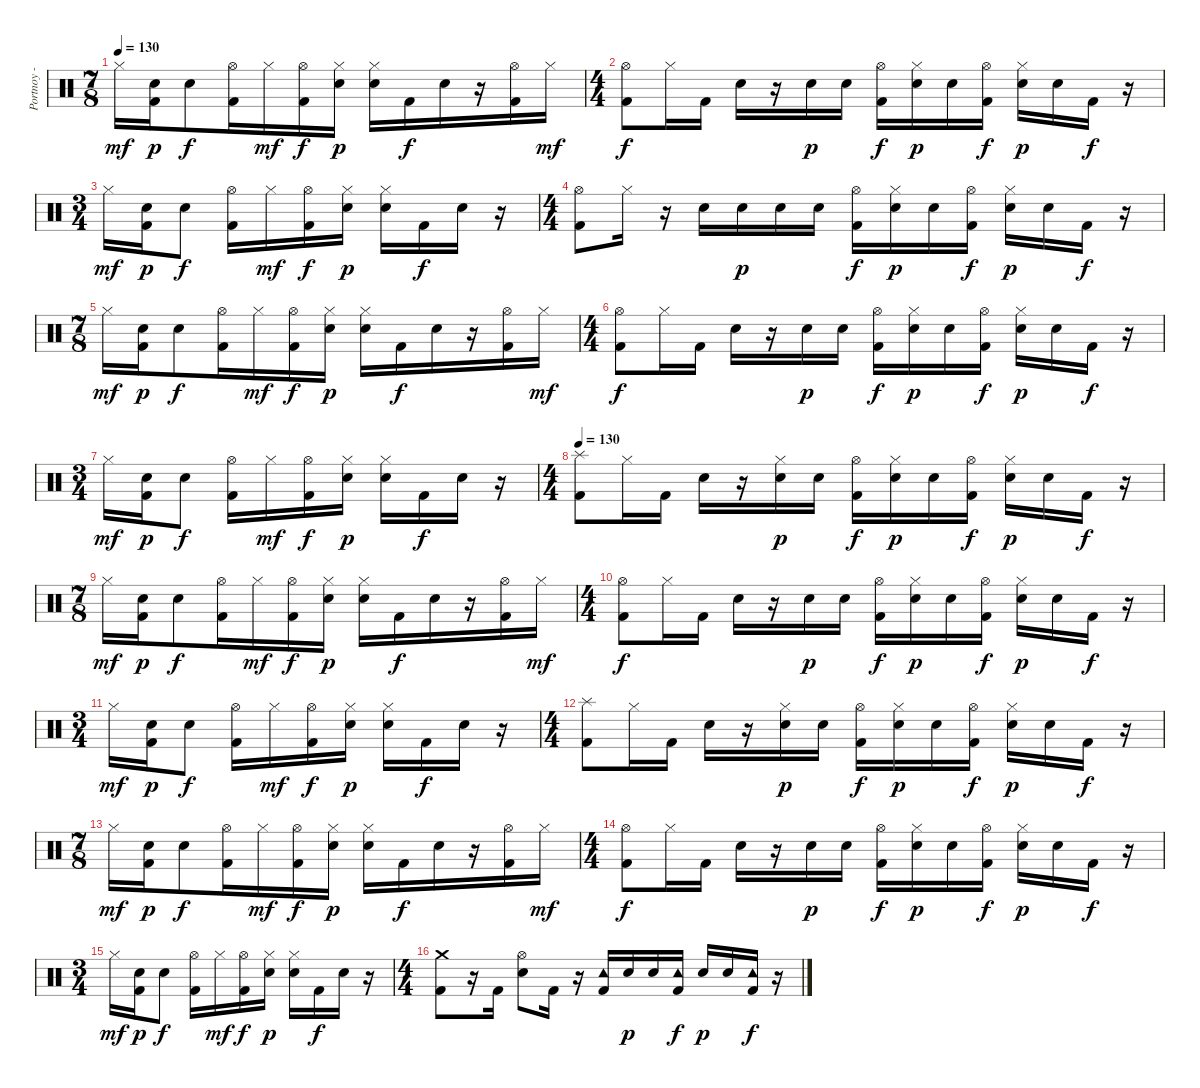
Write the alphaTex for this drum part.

\track ("Portnoy - Drums" "Portnoy - ") {instrument percussion}
\staff {score}
\articulation defaults
\ts (7 8)
\tempo 130
\clef neutral
\ks c "Hi-Hat (closed)".16{dy mf}
("Kick (hit) 2" "Electric Snare (hit)").16{dy p} "Electric Snare (hit)".8{dy f} ("Kick (hit) 2" "Hi-Hat (open)").16 "Hi-Hat (closed)".16{dy mf} ("Kick (hit) 2" "Hi-Hat (open)").16{dy f} ("Hi-Hat (closed)" "Electric Snare (hit)").16{dy p} ("Hi-Hat (closed)" "Electric Snare (hit)").16 "Kick (hit) 2".16{dy f} "Electric Snare (hit)".16 r.16 ("Kick (hit) 2" "Hi-Hat (open)").16 "Hi-Hat (closed)".16{dy mf} |
\ts (4 4)
("Hi-Hat (open)" "Kick (hit) 2").8{dy f} "Hi-Hat (closed)".16 "Kick (hit) 2".16 "Electric Snare (hit)".16 r.16 "Electric Snare (hit)".16{dy p} "Electric Snare (hit)".16 ("Kick (hit) 2" "Hi-Hat (open)").16{dy f} ("Hi-Hat (closed)" "Electric Snare (hit)").16{dy p} "Electric Snare (hit)".16 ("Kick (hit) 2" "Hi-Hat (open)").16{dy f} ("Hi-Hat (closed)" "Electric Snare (hit)").16{dy p} "Electric Snare (hit)".16 "Kick (hit) 2".16{dy f} r.16 |
\ts (3 4)
"Hi-Hat (closed)".16{dy mf} ("Kick (hit) 2" "Electric Snare (hit)").16{dy p} "Electric Snare (hit)".8{dy f} ("Kick (hit) 2" "Hi-Hat (open)").16 "Hi-Hat (closed)".16{dy mf} ("Kick (hit) 2" "Hi-Hat (open)").16{dy f} ("Hi-Hat (closed)" "Electric Snare (hit)").16{dy p} ("Hi-Hat (closed)" "Electric Snare (hit)").16 "Kick (hit) 2".16{dy f} "Electric Snare (hit)".16 r.16 |
\ts (4 4)
("Hi-Hat (open)" "Kick (hit) 2").8 "Hi-Hat (closed)".16 r.16 "Electric Snare (hit)".16 "Electric Snare (hit)".16{dy p} "Electric Snare (hit)".16 "Electric Snare (hit)".16 ("Kick (hit) 2" "Hi-Hat (open)").16{dy f} ("Hi-Hat (closed)" "Electric Snare (hit)").16{dy p} "Electric Snare (hit)".16 ("Kick (hit) 2" "Hi-Hat (open)").16{dy f} ("Hi-Hat (closed)" "Electric Snare (hit)").16{dy p} "Electric Snare (hit)".16 "Kick (hit) 2".16{dy f} r.16 |
\ts (7 8)
"Hi-Hat (closed)".16{dy mf} ("Kick (hit) 2" "Electric Snare (hit)").16{dy p} "Electric Snare (hit)".8{dy f} ("Kick (hit) 2" "Hi-Hat (open)").16 "Hi-Hat (closed)".16{dy mf} ("Kick (hit) 2" "Hi-Hat (open)").16{dy f} ("Hi-Hat (closed)" "Electric Snare (hit)").16{dy p} ("Hi-Hat (closed)" "Electric Snare (hit)").16 "Kick (hit) 2".16{dy f} "Electric Snare (hit)".16 r.16 ("Kick (hit) 2" "Hi-Hat (open)").16 "Hi-Hat (closed)".16{dy mf} |
\ts (4 4)
("Hi-Hat (open)" "Kick (hit) 2").8{dy f} "Hi-Hat (closed)".16 "Kick (hit) 2".16 "Electric Snare (hit)".16 r.16 "Electric Snare (hit)".16{dy p} "Electric Snare (hit)".16 ("Kick (hit) 2" "Hi-Hat (open)").16{dy f} ("Hi-Hat (closed)" "Electric Snare (hit)").16{dy p} "Electric Snare (hit)".16 ("Kick (hit) 2" "Hi-Hat (open)").16{dy f} ("Hi-Hat (closed)" "Electric Snare (hit)").16{dy p} "Electric Snare (hit)".16 "Kick (hit) 2".16{dy f} r.16 |
\ts (3 4)
"Hi-Hat (closed)".16{dy mf} ("Kick (hit) 2" "Electric Snare (hit)").16{dy p} "Electric Snare (hit)".8{dy f} ("Kick (hit) 2" "Hi-Hat (open)").16 "Hi-Hat (closed)".16{dy mf} ("Kick (hit) 2" "Hi-Hat (open)").16{dy f} ("Hi-Hat (closed)" "Electric Snare (hit)").16{dy p} ("Hi-Hat (closed)" "Electric Snare (hit)").16 "Kick (hit) 2".16{dy f} "Electric Snare (hit)".16 r.16 |
\ts (4 4)
\tempo 130
("Kick (hit) 2" "Splash (hit)").8 "Hi-Hat (closed)".16 "Kick (hit) 2".16 "Electric Snare (hit)".16 r.16 ("Electric Snare (hit)" "Hi-Hat (closed)").16{dy p} "Electric Snare (hit)".16 ("Kick (hit) 2" "Hi-Hat (open)").16{dy f} ("Hi-Hat (closed)" "Electric Snare (hit)").16{dy p} "Electric Snare (hit)".16 ("Kick (hit) 2" "Hi-Hat (open)").16{dy f} ("Hi-Hat (closed)" "Electric Snare (hit)").16{dy p} "Electric Snare (hit)".16 "Kick (hit) 2".16{dy f} r.16 |
\ts (7 8)
"Hi-Hat (closed)".16{dy mf} ("Kick (hit) 2" "Electric Snare (hit)").16{dy p} "Electric Snare (hit)".8{dy f} ("Kick (hit) 2" "Hi-Hat (open)").16 "Hi-Hat (closed)".16{dy mf} ("Kick (hit) 2" "Hi-Hat (open)").16{dy f} ("Hi-Hat (closed)" "Electric Snare (hit)").16{dy p} ("Hi-Hat (closed)" "Electric Snare (hit)").16 "Kick (hit) 2".16{dy f} "Electric Snare (hit)".16 r.16 ("Kick (hit) 2" "Hi-Hat (open)").16 "Hi-Hat (closed)".16{dy mf} |
\ts (4 4)
("Kick (hit) 2" "Hi-Hat (open)").8{dy f} "Hi-Hat (closed)".16 "Kick (hit) 2".16 "Electric Snare (hit)".16 r.16 "Electric Snare (hit)".16{dy p} "Electric Snare (hit)".16 ("Kick (hit) 2" "Hi-Hat (open)").16{dy f} ("Hi-Hat (closed)" "Electric Snare (hit)").16{dy p} "Electric Snare (hit)".16 ("Kick (hit) 2" "Hi-Hat (open)").16{dy f} ("Hi-Hat (closed)" "Electric Snare (hit)").16{dy p} "Electric Snare (hit)".16 "Kick (hit) 2".16{dy f} r.16 |
\ts (3 4)
"Hi-Hat (closed)".16{dy mf} ("Kick (hit) 2" "Electric Snare (hit)").16{dy p} "Electric Snare (hit)".8{dy f} ("Kick (hit) 2" "Hi-Hat (open)").16 "Hi-Hat (closed)".16{dy mf} ("Kick (hit) 2" "Hi-Hat (open)").16{dy f} ("Hi-Hat (closed)" "Electric Snare (hit)").16{dy p} ("Hi-Hat (closed)" "Electric Snare (hit)").16 "Kick (hit) 2".16{dy f} "Electric Snare (hit)".16 r.16 |
\ts (4 4)
("Splash (hit)" "Kick (hit) 2").8 "Hi-Hat (closed)".16 "Kick (hit) 2".16 "Electric Snare (hit)".16 r.16 ("Electric Snare (hit)" "Hi-Hat (closed)").16{dy p} "Electric Snare (hit)".16 ("Kick (hit) 2" "Hi-Hat (open)").16{dy f} ("Hi-Hat (closed)" "Electric Snare (hit)").16{dy p} "Electric Snare (hit)".16 ("Kick (hit) 2" "Hi-Hat (open)").16{dy f} ("Hi-Hat (closed)" "Electric Snare (hit)").16{dy p} "Electric Snare (hit)".16 "Kick (hit) 2".16{dy f} r.16 |
\ts (7 8)
"Hi-Hat (closed)".16{dy mf} ("Kick (hit) 2" "Electric Snare (hit)").16{dy p} "Electric Snare (hit)".8{dy f} ("Kick (hit) 2" "Hi-Hat (open)").16 "Hi-Hat (closed)".16{dy mf} ("Kick (hit) 2" "Hi-Hat (open)").16{dy f} ("Hi-Hat (closed)" "Electric Snare (hit)").16{dy p} ("Hi-Hat (closed)" "Electric Snare (hit)").16 "Kick (hit) 2".16{dy f} "Electric Snare (hit)".16 r.16 ("Kick (hit) 2" "Hi-Hat (open)").16 "Hi-Hat (closed)".16{dy mf} |
\ts (4 4)
("Kick (hit) 2" "Hi-Hat (open)").8{dy f} "Hi-Hat (closed)".16 "Kick (hit) 2".16 "Electric Snare (hit)".16 r.16 "Electric Snare (hit)".16{dy p} "Electric Snare (hit)".16 ("Kick (hit) 2" "Hi-Hat (open)").16{dy f} ("Hi-Hat (closed)" "Electric Snare (hit)").16{dy p} "Electric Snare (hit)".16 ("Kick (hit) 2" "Hi-Hat (open)").16{dy f} ("Hi-Hat (closed)" "Electric Snare (hit)").16{dy p} "Electric Snare (hit)".16 "Kick (hit) 2".16{dy f} r.16 |
\ts (3 4)
"Hi-Hat (closed)".16{dy mf} ("Kick (hit) 2" "Electric Snare (hit)").16{dy p} "Electric Snare (hit)".8{dy f} ("Kick (hit) 2" "Hi-Hat (open)").16 "Hi-Hat (closed)".16{dy mf} ("Kick (hit) 2" "Hi-Hat (open)").16{dy f} ("Hi-Hat (closed)" "Electric Snare (hit)").16{dy p} ("Hi-Hat (closed)" "Electric Snare (hit)").16 "Kick (hit) 2".16{dy f} "Electric Snare (hit)".16 r.16 |
\ts (4 4)
("Kick (hit) 2" "Crash medium (hit)").8 r.16 "Kick (hit) 2".16 ("Electric Snare (hit)" "Hi-Hat (open)").8 "Kick (hit) 2".16 r.16 ("Kick (hit) 2" "Tambourine (hit)").16 "Electric Snare (hit)".16{dy p} "Electric Snare (hit)".16 ("Kick (hit) 2" "Tambourine (hit)").16{dy f} "Electric Snare (hit)".16{dy p} "Electric Snare (hit)".16 ("Kick (hit) 2" "Tambourine (hit)").16{dy f} r.16
